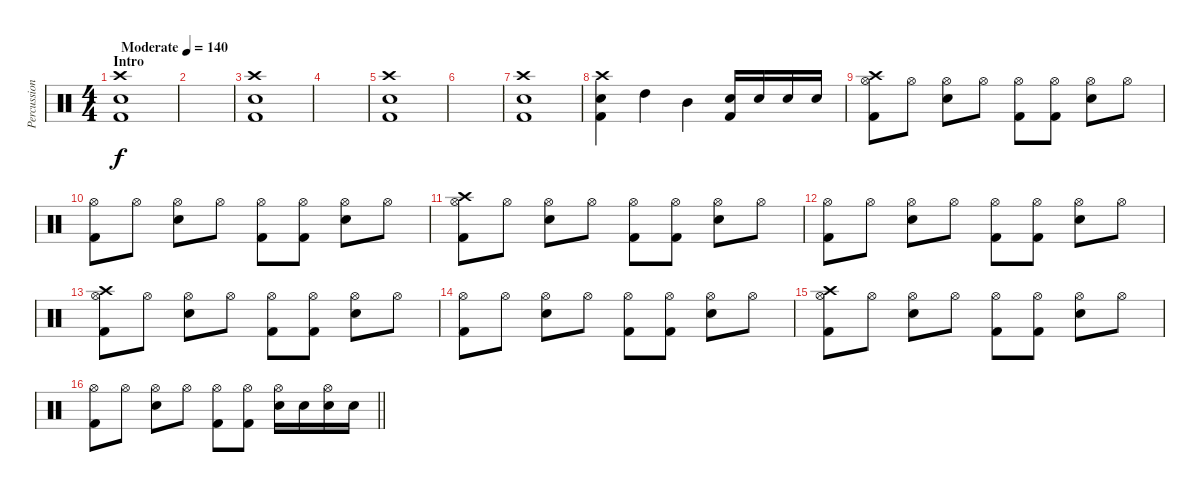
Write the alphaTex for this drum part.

\track ("Percussion" "Percussion") {instrument percussion}
\staff {score}
\articulation defaults
\ts (4 4)
\section ("" "Intro")
\tempo (140 "Moderate")
\clef neutral
\ks c
("Crash high (hit)" "Electric Snare (hit)" "Kick (hit) 2").1{dy f} |
|
("Crash high (hit)" "Electric Snare (hit)" "Kick (hit) 2").1 |
|
("Crash high (hit)" "Electric Snare (hit)" "Kick (hit) 2").1 |
|
("Crash high (hit)" "Electric Snare (hit)" "Kick (hit) 2").1 |
("Crash high (hit)" "Electric Snare (hit)" "Kick (hit) 2").4 "High Tom (hit)".4 "Mid Tom (hit)".4 ("Electric Snare (hit)" "Kick (hit) 2").16 "Electric Snare (hit)".16 "Electric Snare (hit)".16 "Electric Snare (hit)".16 |
("Crash high (hit)" "Hi-Hat (open)" "Kick (hit) 2").8 "Hi-Hat (open)".8 ("Hi-Hat (open)" "Electric Snare (hit)").8 "Hi-Hat (open)".8 ("Hi-Hat (open)" "Kick (hit) 2").8 ("Hi-Hat (open)" "Kick (hit) 2").8 ("Hi-Hat (open)" "Electric Snare (hit)").8 "Hi-Hat (open)".8 |
("Hi-Hat (open)" "Kick (hit) 2").8 "Hi-Hat (open)".8 ("Hi-Hat (open)" "Electric Snare (hit)").8 "Hi-Hat (open)".8 ("Hi-Hat (open)" "Kick (hit) 2").8 ("Hi-Hat (open)" "Kick (hit) 2").8 ("Hi-Hat (open)" "Electric Snare (hit)").8 "Hi-Hat (open)".8 |
("Crash high (hit)" "Hi-Hat (open)" "Kick (hit) 2").8 "Hi-Hat (open)".8 ("Hi-Hat (open)" "Electric Snare (hit)").8 "Hi-Hat (open)".8 ("Hi-Hat (open)" "Kick (hit) 2").8 ("Hi-Hat (open)" "Kick (hit) 2").8 ("Hi-Hat (open)" "Electric Snare (hit)").8 "Hi-Hat (open)".8 |
("Hi-Hat (open)" "Kick (hit) 2").8 "Hi-Hat (open)".8 ("Hi-Hat (open)" "Electric Snare (hit)").8 "Hi-Hat (open)".8 ("Hi-Hat (open)" "Kick (hit) 2").8 ("Hi-Hat (open)" "Kick (hit) 2").8 ("Hi-Hat (open)" "Electric Snare (hit)").8 "Hi-Hat (open)".8 |
("Crash high (hit)" "Hi-Hat (open)" "Kick (hit) 2").8 "Hi-Hat (open)".8 ("Hi-Hat (open)" "Electric Snare (hit)").8 "Hi-Hat (open)".8 ("Hi-Hat (open)" "Kick (hit) 2").8 ("Hi-Hat (open)" "Kick (hit) 2").8 ("Hi-Hat (open)" "Electric Snare (hit)").8 "Hi-Hat (open)".8 |
("Hi-Hat (open)" "Kick (hit) 2").8 "Hi-Hat (open)".8 ("Hi-Hat (open)" "Electric Snare (hit)").8 "Hi-Hat (open)".8 ("Hi-Hat (open)" "Kick (hit) 2").8 ("Hi-Hat (open)" "Kick (hit) 2").8 ("Hi-Hat (open)" "Electric Snare (hit)").8 "Hi-Hat (open)".8 |
("Crash high (hit)" "Hi-Hat (open)" "Kick (hit) 2").8 "Hi-Hat (open)".8 ("Hi-Hat (open)" "Electric Snare (hit)").8 "Hi-Hat (open)".8 ("Hi-Hat (open)" "Kick (hit) 2").8 ("Hi-Hat (open)" "Kick (hit) 2").8 ("Hi-Hat (open)" "Electric Snare (hit)").8 "Hi-Hat (open)".8 |
\barLineRight lightlight
("Hi-Hat (open)" "Kick (hit) 2").8 "Hi-Hat (open)".8 ("Hi-Hat (open)" "Electric Snare (hit)").8 "Hi-Hat (open)".8 ("Hi-Hat (open)" "Kick (hit) 2").8 ("Hi-Hat (open)" "Kick (hit) 2").8 ("Hi-Hat (open)" "Electric Snare (hit)").16 "Electric Snare (hit)".16 ("Hi-Hat (open)" "Electric Snare (hit)").16 "Electric Snare (hit)".16
